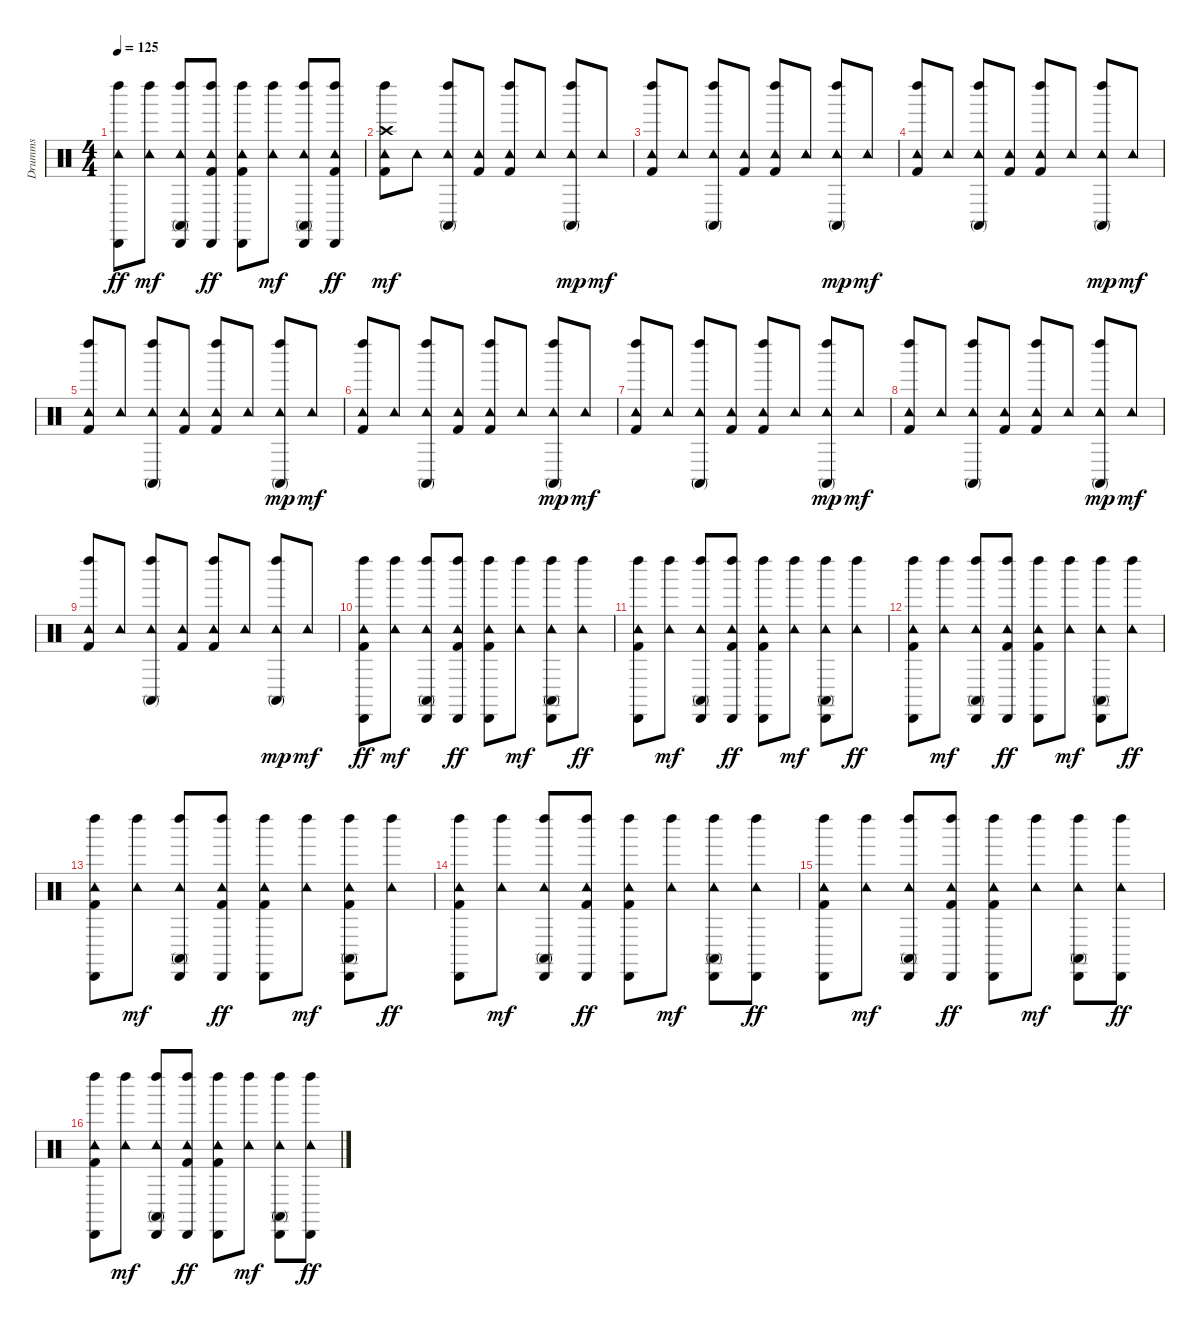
\track ("Drumms" "Drumms") {instrument percussion}
\staff {score}
\articulation defaults
\ts (4 4)
\tempo 125
\clef neutral
\ks c
("Tambourine (hit)" "Cabasa (hit)" "Left Maraca (hit)").8{dy ff} ("Tambourine (hit)" "Left Maraca (hit)").8{dy mf} ("Conga high (mute)" "Tambourine (hit)" "Cabasa (hit)" "Left Maraca (hit)").8 ("Kick (hit) 2" "Tambourine (hit)" "Cabasa (hit)" "Left Maraca (hit)").8{dy ff} ("Kick (hit) 2" "Tambourine (hit)" "Cabasa (hit)" "Left Maraca (hit)").8 ("Tambourine (hit)" "Left Maraca (hit)").8{dy mf} ("Conga high (mute)" "Tambourine (hit)" "Cabasa (hit)" "Left Maraca (hit)").8 ("Kick (hit) 2" "Tambourine (hit)" "Cabasa (hit)" "Left Maraca (hit)").8{dy ff} |
("Kick (hit) 2" "Tambourine (hit)" "Left Maraca (hit)" "Crash high (hit)").8{dy mf} "Tambourine (hit)".8 ("Conga high (mute)" "Tambourine (hit)" "Left Maraca (hit)").8 ("Kick (hit) 2" "Tambourine (hit)").8 ("Kick (hit) 2" "Tambourine (hit)" "Left Maraca (hit)").8 "Tambourine (hit)".8 ("Conga high (mute)" "Tambourine (hit)" "Left Maraca (hit)").8{dy mp} "Tambourine (hit)".8{dy mf} |
("Kick (hit) 2" "Tambourine (hit)" "Left Maraca (hit)").8 "Tambourine (hit)".8 ("Conga high (mute)" "Tambourine (hit)" "Left Maraca (hit)").8 ("Kick (hit) 2" "Tambourine (hit)").8 ("Kick (hit) 2" "Tambourine (hit)" "Left Maraca (hit)").8 "Tambourine (hit)".8 ("Conga high (mute)" "Tambourine (hit)" "Left Maraca (hit)").8{dy mp} "Tambourine (hit)".8{dy mf} |
("Kick (hit) 2" "Tambourine (hit)" "Left Maraca (hit)").8 "Tambourine (hit)".8 ("Conga high (mute)" "Tambourine (hit)" "Left Maraca (hit)").8 ("Kick (hit) 2" "Tambourine (hit)").8 ("Kick (hit) 2" "Tambourine (hit)" "Left Maraca (hit)").8 "Tambourine (hit)".8 ("Conga high (mute)" "Tambourine (hit)" "Left Maraca (hit)").8{dy mp} "Tambourine (hit)".8{dy mf} |
("Kick (hit) 2" "Tambourine (hit)" "Left Maraca (hit)").8 "Tambourine (hit)".8 ("Conga high (mute)" "Tambourine (hit)" "Left Maraca (hit)").8 ("Kick (hit) 2" "Tambourine (hit)").8 ("Kick (hit) 2" "Tambourine (hit)" "Left Maraca (hit)").8 "Tambourine (hit)".8 ("Conga high (mute)" "Tambourine (hit)" "Left Maraca (hit)").8{dy mp} "Tambourine (hit)".8{dy mf} |
("Kick (hit) 2" "Tambourine (hit)" "Left Maraca (hit)").8 "Tambourine (hit)".8 ("Conga high (mute)" "Tambourine (hit)" "Left Maraca (hit)").8 ("Kick (hit) 2" "Tambourine (hit)").8 ("Kick (hit) 2" "Tambourine (hit)" "Left Maraca (hit)").8 "Tambourine (hit)".8 ("Conga high (mute)" "Tambourine (hit)" "Left Maraca (hit)").8{dy mp} "Tambourine (hit)".8{dy mf} |
("Kick (hit) 2" "Tambourine (hit)" "Left Maraca (hit)").8 "Tambourine (hit)".8 ("Conga high (mute)" "Tambourine (hit)" "Left Maraca (hit)").8 ("Kick (hit) 2" "Tambourine (hit)").8 ("Kick (hit) 2" "Tambourine (hit)" "Left Maraca (hit)").8 "Tambourine (hit)".8 ("Conga high (mute)" "Tambourine (hit)" "Left Maraca (hit)").8{dy mp} "Tambourine (hit)".8{dy mf} |
("Kick (hit) 2" "Tambourine (hit)" "Left Maraca (hit)").8 "Tambourine (hit)".8 ("Conga high (mute)" "Tambourine (hit)" "Left Maraca (hit)").8 ("Kick (hit) 2" "Tambourine (hit)").8 ("Kick (hit) 2" "Tambourine (hit)" "Left Maraca (hit)").8 "Tambourine (hit)".8 ("Conga high (mute)" "Tambourine (hit)" "Left Maraca (hit)").8{dy mp} "Tambourine (hit)".8{dy mf} |
("Kick (hit) 2" "Tambourine (hit)" "Left Maraca (hit)").8 "Tambourine (hit)".8 ("Conga high (mute)" "Tambourine (hit)" "Left Maraca (hit)").8 ("Kick (hit) 2" "Tambourine (hit)").8 ("Kick (hit) 2" "Tambourine (hit)" "Left Maraca (hit)").8 "Tambourine (hit)".8 ("Conga high (mute)" "Tambourine (hit)" "Left Maraca (hit)").8{dy mp} "Tambourine (hit)".8{dy mf} |
("Kick (hit) 2" "Tambourine (hit)" "Cabasa (hit)" "Left Maraca (hit)").8{dy ff} ("Tambourine (hit)" "Left Maraca (hit)").8{dy mf} ("Conga high (mute)" "Tambourine (hit)" "Cabasa (hit)" "Left Maraca (hit)").8 ("Kick (hit) 2" "Tambourine (hit)" "Cabasa (hit)" "Left Maraca (hit)").8{dy ff} ("Kick (hit) 2" "Tambourine (hit)" "Cabasa (hit)" "Left Maraca (hit)").8 ("Tambourine (hit)" "Left Maraca (hit)").8{dy mf} ("Conga high (mute)" "Tambourine (hit)" "Cabasa (hit)" "Left Maraca (hit)").8 ("Tambourine (hit)" "Left Maraca (hit)").8{dy ff} |
("Kick (hit) 2" "Tambourine (hit)" "Cabasa (hit)" "Left Maraca (hit)").8 ("Tambourine (hit)" "Left Maraca (hit)").8{dy mf} ("Conga high (mute)" "Tambourine (hit)" "Cabasa (hit)" "Left Maraca (hit)").8 ("Kick (hit) 2" "Tambourine (hit)" "Cabasa (hit)" "Left Maraca (hit)").8{dy ff} ("Kick (hit) 2" "Tambourine (hit)" "Cabasa (hit)" "Left Maraca (hit)").8 ("Tambourine (hit)" "Left Maraca (hit)").8{dy mf} ("Conga high (mute)" "Tambourine (hit)" "Cabasa (hit)" "Left Maraca (hit)").8 ("Tambourine (hit)" "Left Maraca (hit)").8{dy ff} |
("Kick (hit) 2" "Tambourine (hit)" "Cabasa (hit)" "Left Maraca (hit)").8 ("Tambourine (hit)" "Left Maraca (hit)").8{dy mf} ("Conga high (mute)" "Tambourine (hit)" "Cabasa (hit)" "Left Maraca (hit)").8 ("Kick (hit) 2" "Tambourine (hit)" "Cabasa (hit)" "Left Maraca (hit)").8{dy ff} ("Kick (hit) 2" "Tambourine (hit)" "Cabasa (hit)" "Left Maraca (hit)").8 ("Tambourine (hit)" "Left Maraca (hit)").8{dy mf} ("Conga high (mute)" "Tambourine (hit)" "Cabasa (hit)" "Left Maraca (hit)").8 ("Tambourine (hit)" "Left Maraca (hit)").8{dy ff} |
("Kick (hit) 2" "Tambourine (hit)" "Cabasa (hit)" "Left Maraca (hit)").8 ("Tambourine (hit)" "Left Maraca (hit)").8{dy mf} ("Conga high (mute)" "Tambourine (hit)" "Cabasa (hit)" "Left Maraca (hit)").8 ("Kick (hit) 2" "Tambourine (hit)" "Cabasa (hit)" "Left Maraca (hit)").8{dy ff} ("Kick (hit) 2" "Tambourine (hit)" "Cabasa (hit)" "Left Maraca (hit)").8 ("Tambourine (hit)" "Left Maraca (hit)").8{dy mf} ("Conga high (mute)" "Tambourine (hit)" "Cabasa (hit)" "Left Maraca (hit)" "Kick (hit) 2").8 ("Tambourine (hit)" "Left Maraca (hit)").8{dy ff} |
("Kick (hit) 2" "Tambourine (hit)" "Cabasa (hit)" "Left Maraca (hit)").8 ("Tambourine (hit)" "Left Maraca (hit)").8{dy mf} ("Conga high (mute)" "Tambourine (hit)" "Cabasa (hit)" "Left Maraca (hit)").8 ("Kick (hit) 2" "Tambourine (hit)" "Cabasa (hit)" "Left Maraca (hit)").8{dy ff} ("Kick (hit) 2" "Tambourine (hit)" "Cabasa (hit)" "Left Maraca (hit)").8 ("Tambourine (hit)" "Left Maraca (hit)").8{dy mf} ("Conga high (mute)" "Tambourine (hit)" "Cabasa (hit)" "Left Maraca (hit)").8 ("Tambourine (hit)" "Left Maraca (hit)" "Cabasa (hit)").8{dy ff} |
("Kick (hit) 2" "Tambourine (hit)" "Cabasa (hit)" "Left Maraca (hit)").8 ("Tambourine (hit)" "Left Maraca (hit)").8{dy mf} ("Conga high (mute)" "Tambourine (hit)" "Cabasa (hit)" "Left Maraca (hit)").8 ("Kick (hit) 2" "Tambourine (hit)" "Cabasa (hit)" "Left Maraca (hit)").8{dy ff} ("Kick (hit) 2" "Tambourine (hit)" "Cabasa (hit)" "Left Maraca (hit)").8 ("Tambourine (hit)" "Left Maraca (hit)").8{dy mf} ("Conga high (mute)" "Tambourine (hit)" "Cabasa (hit)" "Left Maraca (hit)").8 ("Tambourine (hit)" "Left Maraca (hit)" "Cabasa (hit)").8{dy ff} |
("Kick (hit) 2" "Tambourine (hit)" "Cabasa (hit)" "Left Maraca (hit)").8 ("Tambourine (hit)" "Left Maraca (hit)").8{dy mf} ("Conga high (mute)" "Tambourine (hit)" "Cabasa (hit)" "Left Maraca (hit)").8 ("Kick (hit) 2" "Tambourine (hit)" "Cabasa (hit)" "Left Maraca (hit)").8{dy ff} ("Kick (hit) 2" "Tambourine (hit)" "Cabasa (hit)" "Left Maraca (hit)").8 ("Tambourine (hit)" "Left Maraca (hit)").8{dy mf} ("Conga high (mute)" "Tambourine (hit)" "Cabasa (hit)" "Left Maraca (hit)").8 ("Tambourine (hit)" "Left Maraca (hit)" "Cabasa (hit)").8{dy ff}
